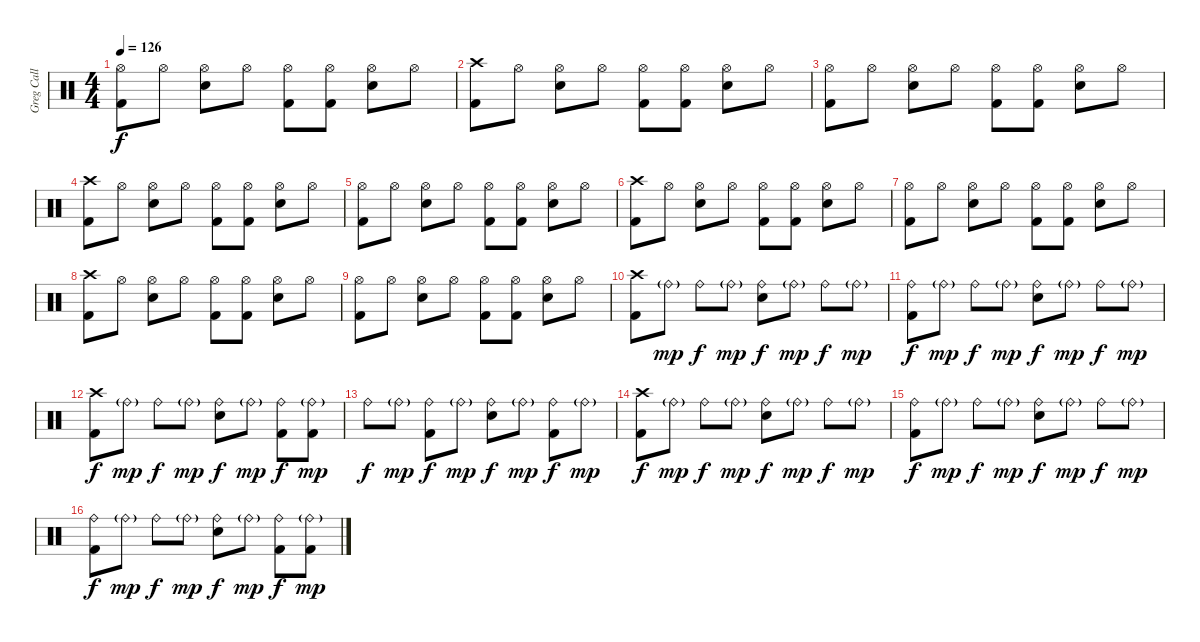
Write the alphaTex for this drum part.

\track ("Greg Call (Drums)" "Greg Call ") {instrument percussion}
\staff {score}
\articulation defaults
\ts (4 4)
\tempo 126
\clef neutral
\ks c
("Hi-Hat (open)" "Kick (hit) 2").8{dy f} "Hi-Hat (open)".8 ("Hi-Hat (open)" "Snare (hit) 2").8 "Hi-Hat (open)".8 ("Hi-Hat (open)" "Kick (hit) 2").8 ("Hi-Hat (open)" "Kick (hit) 2").8 ("Hi-Hat (open)" "Snare (hit) 2").8 "Hi-Hat (open)".8 |
("Crash high (hit)" "Kick (hit) 2").8 "Hi-Hat (open)".8 ("Hi-Hat (open)" "Snare (hit) 2").8 "Hi-Hat (open)".8 ("Hi-Hat (open)" "Kick (hit) 2").8 ("Hi-Hat (open)" "Kick (hit) 2").8 ("Hi-Hat (open)" "Snare (hit) 2").8 "Hi-Hat (open)".8 |
("Hi-Hat (open)" "Kick (hit) 2").8 "Hi-Hat (open)".8 ("Hi-Hat (open)" "Snare (hit) 2").8 "Hi-Hat (open)".8 ("Hi-Hat (open)" "Kick (hit) 2").8 ("Hi-Hat (open)" "Kick (hit) 2").8 ("Hi-Hat (open)" "Snare (hit) 2").8 "Hi-Hat (open)".8 |
("Crash high (hit)" "Kick (hit) 2").8 "Hi-Hat (open)".8 ("Hi-Hat (open)" "Snare (hit) 2").8 "Hi-Hat (open)".8 ("Hi-Hat (open)" "Kick (hit) 2").8 ("Hi-Hat (open)" "Kick (hit) 2").8 ("Hi-Hat (open)" "Snare (hit) 2").8 "Hi-Hat (open)".8 |
("Hi-Hat (open)" "Kick (hit) 2").8 "Hi-Hat (open)".8 ("Hi-Hat (open)" "Snare (hit) 2").8 "Hi-Hat (open)".8 ("Hi-Hat (open)" "Kick (hit) 2").8 ("Hi-Hat (open)" "Kick (hit) 2").8 ("Hi-Hat (open)" "Snare (hit) 2").8 "Hi-Hat (open)".8 |
("Crash high (hit)" "Kick (hit) 2").8 "Hi-Hat (open)".8 ("Hi-Hat (open)" "Snare (hit) 2").8 "Hi-Hat (open)".8 ("Hi-Hat (open)" "Kick (hit) 2").8 ("Hi-Hat (open)" "Kick (hit) 2").8 ("Hi-Hat (open)" "Snare (hit) 2").8 "Hi-Hat (open)".8 |
("Hi-Hat (open)" "Kick (hit) 2").8 "Hi-Hat (open)".8 ("Hi-Hat (open)" "Snare (hit) 2").8 "Hi-Hat (open)".8 ("Hi-Hat (open)" "Kick (hit) 2").8 ("Hi-Hat (open)" "Kick (hit) 2").8 ("Hi-Hat (open)" "Snare (hit) 2").8 "Hi-Hat (open)".8 |
("Crash high (hit)" "Kick (hit) 2").8 "Hi-Hat (open)".8 ("Hi-Hat (open)" "Snare (hit) 2").8 "Hi-Hat (open)".8 ("Hi-Hat (open)" "Kick (hit) 2").8 ("Hi-Hat (open)" "Kick (hit) 2").8 ("Hi-Hat (open)" "Snare (hit) 2").8 "Hi-Hat (open)".8 |
("Hi-Hat (open)" "Kick (hit) 2").8 "Hi-Hat (open)".8 ("Hi-Hat (open)" "Snare (hit) 2").8 "Hi-Hat (open)".8 ("Hi-Hat (open)" "Kick (hit) 2").8 ("Hi-Hat (open)" "Kick (hit) 2").8 ("Hi-Hat (open)" "Snare (hit) 2").8 "Hi-Hat (open)".8 |
("Crash high (hit)" "Kick (hit) 2").8 "Ride (bell)"{g}.8{dy mp} "Ride (bell)".8{dy f} "Ride (bell)"{g}.8{dy mp} ("Ride (bell)" "Snare (hit) 2").8{dy f} "Ride (bell)"{g}.8{dy mp} "Ride (bell)".8{dy f} "Ride (bell)"{g}.8{dy mp} |
("Ride (bell)" "Kick (hit) 2").8{dy f} "Ride (bell)"{g}.8{dy mp} "Ride (bell)".8{dy f} "Ride (bell)"{g}.8{dy mp} ("Ride (bell)" "Snare (hit) 2").8{dy f} "Ride (bell)"{g}.8{dy mp} "Ride (bell)".8{dy f} "Ride (bell)"{g}.8{dy mp} |
("Crash high (hit)" "Kick (hit) 2").8{dy f} "Ride (bell)"{g}.8{dy mp} "Ride (bell)".8{dy f} "Ride (bell)"{g}.8{dy mp} ("Ride (bell)" "Snare (hit) 2").8{dy f} "Ride (bell)"{g}.8{dy mp} ("Ride (bell)" "Kick (hit) 2").8{dy f} ("Ride (bell)"{g} "Kick (hit) 2").8{dy mp} |
"Ride (bell)".8{dy f} "Ride (bell)"{g}.8{dy mp} ("Ride (bell)" "Kick (hit) 2").8{dy f} "Ride (bell)"{g}.8{dy mp} ("Ride (bell)" "Snare (hit) 2").8{dy f} "Ride (bell)"{g}.8{dy mp} ("Ride (bell)" "Kick (hit) 2").8{dy f} "Ride (bell)"{g}.8{dy mp} |
("Crash high (hit)" "Kick (hit) 2").8{dy f} "Ride (bell)"{g}.8{dy mp} "Ride (bell)".8{dy f} "Ride (bell)"{g}.8{dy mp} ("Ride (bell)" "Snare (hit) 2").8{dy f} "Ride (bell)"{g}.8{dy mp} "Ride (bell)".8{dy f} "Ride (bell)"{g}.8{dy mp} |
("Ride (bell)" "Kick (hit) 2").8{dy f} "Ride (bell)"{g}.8{dy mp} "Ride (bell)".8{dy f} "Ride (bell)"{g}.8{dy mp} ("Ride (bell)" "Snare (hit) 2").8{dy f} "Ride (bell)"{g}.8{dy mp} "Ride (bell)".8{dy f} "Ride (bell)"{g}.8{dy mp} |
("Ride (bell)" "Kick (hit) 2").8{dy f} "Ride (bell)"{g}.8{dy mp} "Ride (bell)".8{dy f} "Ride (bell)"{g}.8{dy mp} ("Ride (bell)" "Snare (hit) 2").8{dy f} "Ride (bell)"{g}.8{dy mp} ("Ride (bell)" "Kick (hit) 2").8{dy f} ("Ride (bell)"{g} "Kick (hit) 2").8{dy mp}
